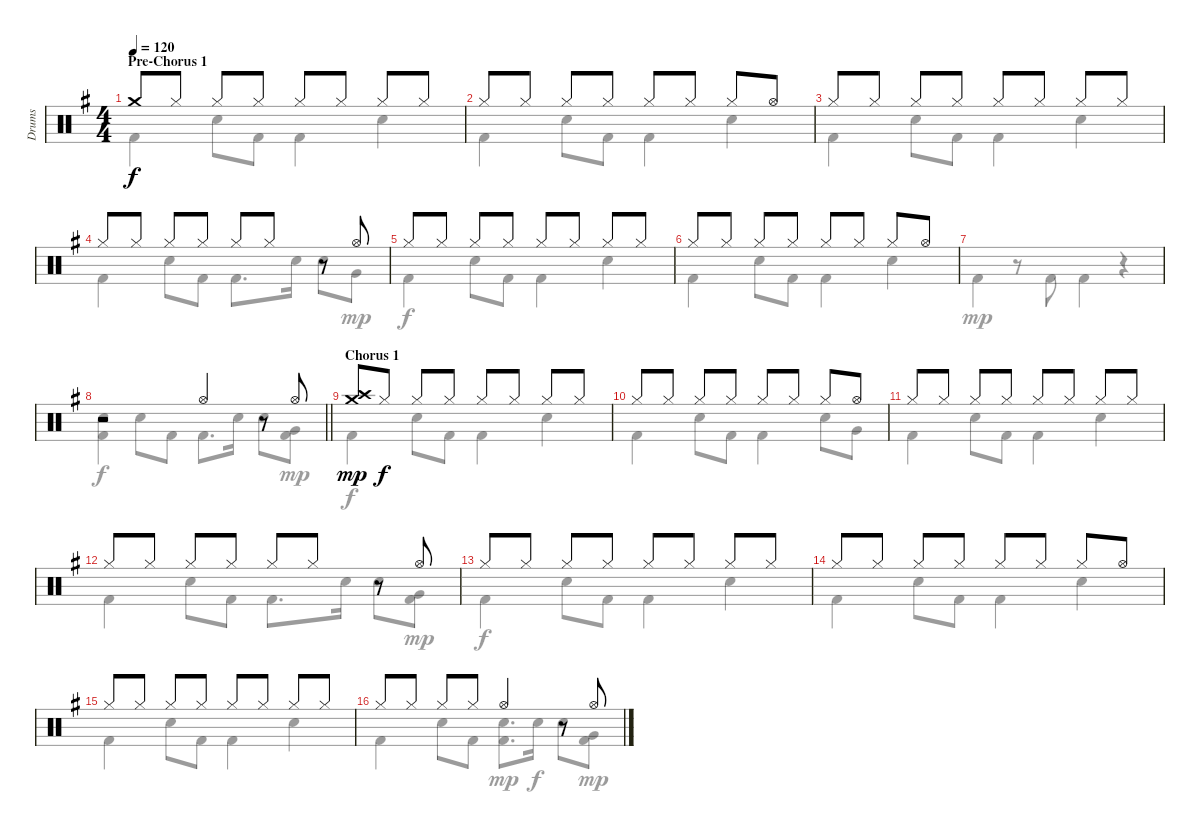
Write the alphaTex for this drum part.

\track ("Drums" "Drums") {instrument percussion}
\staff {score}
\articulation defaults
\voice
\ts (4 4)
\section ("" "Pre-Chorus 1")
\tempo 120
\clef neutral
\ks g "Crash medium (hit)".8{dy f} "Hi-Hat (closed)".8 "Hi-Hat (closed)".8 "Hi-Hat (closed)".8 "Hi-Hat (closed)".8 "Hi-Hat (closed)".8 "Hi-Hat (closed)".8 "Hi-Hat (closed)".8
|
"Hi-Hat (closed)".8 "Hi-Hat (closed)".8 "Hi-Hat (closed)".8 "Hi-Hat (closed)".8 "Hi-Hat (closed)".8 "Hi-Hat (closed)".8 "Hi-Hat (closed)".8 "Hi-Hat (open)".8 |
"Hi-Hat (closed)".8 "Hi-Hat (closed)".8 "Hi-Hat (closed)".8 "Hi-Hat (closed)".8 "Hi-Hat (closed)".8 "Hi-Hat (closed)".8 "Hi-Hat (closed)".8 "Hi-Hat (closed)".8 |
"Hi-Hat (closed)".8 "Hi-Hat (closed)".8 "Hi-Hat (closed)".8 "Hi-Hat (closed)".8 "Hi-Hat (closed)".8 "Hi-Hat (closed)".8 r.8 "Hi-Hat (open)".8 |
"Hi-Hat (closed)".8 "Hi-Hat (closed)".8 "Hi-Hat (closed)".8 "Hi-Hat (closed)".8 "Hi-Hat (closed)".8 "Hi-Hat (closed)".8 "Hi-Hat (closed)".8 "Hi-Hat (closed)".8 |
"Hi-Hat (closed)".8 "Hi-Hat (closed)".8 "Hi-Hat (closed)".8 "Hi-Hat (closed)".8 "Hi-Hat (closed)".8 "Hi-Hat (closed)".8 "Hi-Hat (closed)".8 "Hi-Hat (open)".8 |
|
\barLineRight lightlight
r.2 "Hi-Hat (open)".4 r.8 "Hi-Hat (open)".8 |
\section ("" "Chorus 1")
("Crash medium (hit)" "Crash high (hit)").8{dy mp} "Hi-Hat (closed)".8{dy f} "Hi-Hat (closed)".8 "Hi-Hat (closed)".8 "Hi-Hat (closed)".8 "Hi-Hat (closed)".8 "Hi-Hat (closed)".8 "Hi-Hat (closed)".8 |
"Hi-Hat (closed)".8 "Hi-Hat (closed)".8 "Hi-Hat (closed)".8 "Hi-Hat (closed)".8 "Hi-Hat (closed)".8 "Hi-Hat (closed)".8 "Hi-Hat (closed)".8 "Hi-Hat (open)".8 |
"Hi-Hat (closed)".8 "Hi-Hat (closed)".8 "Hi-Hat (closed)".8 "Hi-Hat (closed)".8 "Hi-Hat (closed)".8 "Hi-Hat (closed)".8 "Hi-Hat (closed)".8 "Hi-Hat (closed)".8 |
"Hi-Hat (closed)".8 "Hi-Hat (closed)".8 "Hi-Hat (closed)".8 "Hi-Hat (closed)".8 "Hi-Hat (closed)".8 "Hi-Hat (closed)".8 r.8 "Hi-Hat (open)".8 |
"Hi-Hat (closed)".8 "Hi-Hat (closed)".8 "Hi-Hat (closed)".8 "Hi-Hat (closed)".8 "Hi-Hat (closed)".8 "Hi-Hat (closed)".8 "Hi-Hat (closed)".8 "Hi-Hat (closed)".8 |
"Hi-Hat (closed)".8 "Hi-Hat (closed)".8 "Hi-Hat (closed)".8 "Hi-Hat (closed)".8 "Hi-Hat (closed)".8 "Hi-Hat (closed)".8 "Hi-Hat (closed)".8 "Hi-Hat (open)".8 |
"Hi-Hat (closed)".8 "Hi-Hat (closed)".8 "Hi-Hat (closed)".8 "Hi-Hat (closed)".8 "Hi-Hat (closed)".8 "Hi-Hat (closed)".8 "Hi-Hat (closed)".8 "Hi-Hat (closed)".8 |
"Hi-Hat (closed)".8 "Hi-Hat (closed)".8 "Hi-Hat (closed)".8 "Hi-Hat (closed)".8 "Hi-Hat (open)".4 r.8 "Hi-Hat (open)".8
\voice
\clef neutral
\ottava regular
\simile none
\ks g "Kick (hit) 2".4{dy f} "Electric Snare (hit)".8 "Kick (hit) 2".8 "Kick (hit) 2".4 "Electric Snare (hit)".4
|
"Kick (hit) 2".4 "Electric Snare (hit)".8 "Kick (hit) 2".8 "Kick (hit) 2".4 "Electric Snare (hit)".4 |
"Kick (hit) 2".4 "Electric Snare (hit)".8 "Kick (hit) 2".8 "Kick (hit) 2".4 "Electric Snare (hit)".4 |
"Kick (hit) 2".4 "Electric Snare (hit)".8 "Kick (hit) 2".8 "Kick (hit) 2".8{d} "Electric Snare (hit)".16 "Electric Snare (hit)".8 "Very Low Tom (hit)".8{dy mp} |
"Kick (hit) 2".4{dy f} "Electric Snare (hit)".8 "Kick (hit) 2".8 "Kick (hit) 2".4 "Electric Snare (hit)".4 |
"Kick (hit) 2".4 "Electric Snare (hit)".8 "Kick (hit) 2".8 "Kick (hit) 2".4 "Electric Snare (hit)".4 |
"Kick (hit) 2".4{dy mp} r.8 "Kick (hit) 2".8 "Kick (hit) 2".4 r.4 |
\barLineRight lightlight
("Electric Snare (hit)" "Kick (hit) 2").4{dy f} "Electric Snare (hit)".8 "Kick (hit) 2".8 "Kick (hit) 2".8{d} "Electric Snare (hit)".16 "Electric Snare (hit)".8 ("Very Low Tom (hit)" "Kick (hit) 2").8{dy mp} |
"Kick (hit) 2".4{dy f} "Electric Snare (hit)".8 "Kick (hit) 2".8 "Kick (hit) 2".4 "Electric Snare (hit)".4 |
"Kick (hit) 2".4 "Electric Snare (hit)".8 "Kick (hit) 2".8 "Kick (hit) 2".4 "Electric Snare (hit)".8 "Very Low Tom (hit)".8 |
"Kick (hit) 2".4 "Electric Snare (hit)".8 "Kick (hit) 2".8 "Kick (hit) 2".4 "Electric Snare (hit)".4 |
"Kick (hit) 2".4 "Electric Snare (hit)".8 "Kick (hit) 2".8 "Kick (hit) 2".8{d} "Electric Snare (hit)".16 "Electric Snare (hit)".8 ("Very Low Tom (hit)" "Kick (hit) 2").8{dy mp} |
"Kick (hit) 2".4{dy f} "Electric Snare (hit)".8 "Kick (hit) 2".8 "Kick (hit) 2".4 "Electric Snare (hit)".4 |
"Kick (hit) 2".4 "Electric Snare (hit)".8 "Kick (hit) 2".8 "Kick (hit) 2".4 "Electric Snare (hit)".4 |
"Kick (hit) 2".4 "Electric Snare (hit)".8 "Kick (hit) 2".8 "Kick (hit) 2".4 "Electric Snare (hit)".4 |
"Kick (hit) 2".4 "Electric Snare (hit)".8 "Kick (hit) 2".8 ("Electric Snare (hit)" "Kick (hit) 2").8{d dy mp} "Electric Snare (hit)".16{dy f} "Electric Snare (hit)".8 ("Very Low Tom (hit)" "Kick (hit) 2").8{dy mp}
